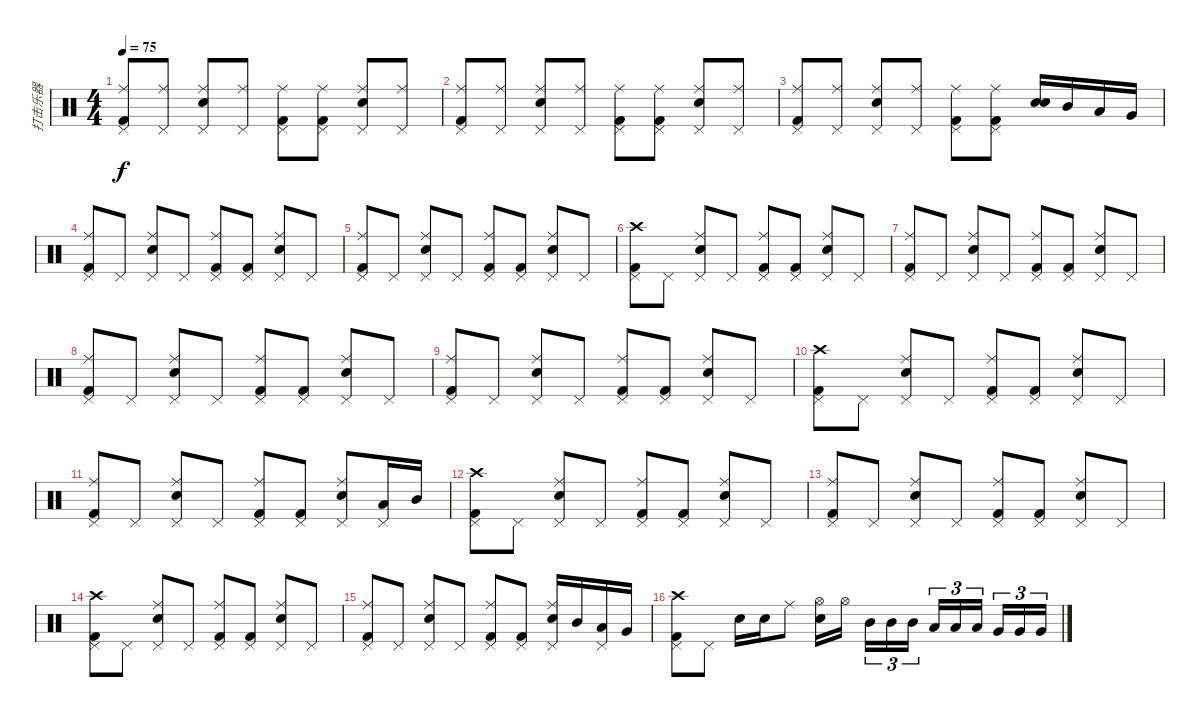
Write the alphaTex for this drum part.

\track ("打击乐器" "打击乐器") {instrument percussion}
\staff {score}
\articulation defaults
\ts (4 4)
\tempo 75
\clef neutral
\ks c
("Ride (middle)" "Pedal Hi-Hat (hit)" "Kick (hit) 2").8{dy f} ("Ride (middle)" "Pedal Hi-Hat (hit)").8 ("Ride (middle)" "Pedal Hi-Hat (hit)" "Electric Snare (hit)").8 ("Ride (middle)" "Pedal Hi-Hat (hit)").8 ("Ride (middle)" "Pedal Hi-Hat (hit)" "Kick (hit) 2").8 ("Ride (middle)" "Pedal Hi-Hat (hit)" "Kick (hit) 2").8 ("Ride (middle)" "Pedal Hi-Hat (hit)" "Electric Snare (hit)").8 ("Ride (middle)" "Pedal Hi-Hat (hit)").8 |
("Ride (middle)" "Pedal Hi-Hat (hit)" "Kick (hit) 2").8 ("Ride (middle)" "Pedal Hi-Hat (hit)").8 ("Ride (middle)" "Pedal Hi-Hat (hit)" "Electric Snare (hit)").8 ("Ride (middle)" "Pedal Hi-Hat (hit)").8 ("Ride (middle)" "Pedal Hi-Hat (hit)" "Kick (hit) 2").8 ("Ride (middle)" "Pedal Hi-Hat (hit)" "Kick (hit) 2").8 ("Ride (middle)" "Pedal Hi-Hat (hit)" "Electric Snare (hit)").8 ("Ride (middle)" "Pedal Hi-Hat (hit)").8 |
("Ride (middle)" "Pedal Hi-Hat (hit)" "Kick (hit) 2").8 ("Ride (middle)" "Pedal Hi-Hat (hit)").8 ("Ride (middle)" "Pedal Hi-Hat (hit)" "Electric Snare (hit)").8 ("Ride (middle)" "Pedal Hi-Hat (hit)").8 ("Ride (middle)" "Pedal Hi-Hat (hit)" "Kick (hit) 2").8 ("Ride (middle)" "Pedal Hi-Hat (hit)" "Kick (hit) 2").8 ("Electric Snare (hit)" "Electric Snare (hit)").16 "Mid Tom (hit)".16 "Low Tom (hit)".16 "Very Low Tom (hit)".16 |
("Ride (middle)" "Pedal Hi-Hat (hit)" "Kick (hit) 2").8 "Pedal Hi-Hat (hit)".8 ("Ride (middle)" "Pedal Hi-Hat (hit)" "Electric Snare (hit)").8 "Pedal Hi-Hat (hit)".8 ("Ride (middle)" "Pedal Hi-Hat (hit)" "Kick (hit) 2").8 ("Pedal Hi-Hat (hit)" "Kick (hit) 2").8 ("Ride (middle)" "Pedal Hi-Hat (hit)" "Electric Snare (hit)").8 "Pedal Hi-Hat (hit)".8 |
("Ride (middle)" "Pedal Hi-Hat (hit)" "Kick (hit) 2").8 "Pedal Hi-Hat (hit)".8 ("Ride (middle)" "Pedal Hi-Hat (hit)" "Electric Snare (hit)").8 "Pedal Hi-Hat (hit)".8 ("Ride (middle)" "Pedal Hi-Hat (hit)" "Kick (hit) 2").8 ("Pedal Hi-Hat (hit)" "Kick (hit) 2").8 ("Ride (middle)" "Pedal Hi-Hat (hit)" "Electric Snare (hit)").8 "Pedal Hi-Hat (hit)".8 |
("Crash high (hit)" "Pedal Hi-Hat (hit)" "Kick (hit) 2").8 "Pedal Hi-Hat (hit)".8 ("Ride (middle)" "Pedal Hi-Hat (hit)" "Electric Snare (hit)").8 "Pedal Hi-Hat (hit)".8 ("Ride (middle)" "Pedal Hi-Hat (hit)" "Kick (hit) 2").8 ("Pedal Hi-Hat (hit)" "Kick (hit) 2").8 ("Ride (middle)" "Pedal Hi-Hat (hit)" "Electric Snare (hit)").8 "Pedal Hi-Hat (hit)".8 |
("Ride (middle)" "Pedal Hi-Hat (hit)" "Kick (hit) 2").8 "Pedal Hi-Hat (hit)".8 ("Ride (middle)" "Pedal Hi-Hat (hit)" "Electric Snare (hit)").8 "Pedal Hi-Hat (hit)".8 ("Ride (middle)" "Pedal Hi-Hat (hit)" "Kick (hit) 2").8 ("Pedal Hi-Hat (hit)" "Kick (hit) 2").8 ("Ride (middle)" "Pedal Hi-Hat (hit)" "Electric Snare (hit)").8 "Pedal Hi-Hat (hit)".8 |
("Ride (middle)" "Pedal Hi-Hat (hit)" "Kick (hit) 2").8 "Pedal Hi-Hat (hit)".8 ("Ride (middle)" "Pedal Hi-Hat (hit)" "Electric Snare (hit)").8 "Pedal Hi-Hat (hit)".8 ("Ride (middle)" "Pedal Hi-Hat (hit)" "Kick (hit) 2").8 ("Pedal Hi-Hat (hit)" "Kick (hit) 2").8 ("Ride (middle)" "Pedal Hi-Hat (hit)" "Electric Snare (hit)").8 "Pedal Hi-Hat (hit)".8 |
("Ride (middle)" "Pedal Hi-Hat (hit)" "Kick (hit) 2").8 "Pedal Hi-Hat (hit)".8 ("Ride (middle)" "Pedal Hi-Hat (hit)" "Electric Snare (hit)").8 "Pedal Hi-Hat (hit)".8 ("Ride (middle)" "Pedal Hi-Hat (hit)" "Kick (hit) 2").8 ("Pedal Hi-Hat (hit)" "Kick (hit) 2").8 ("Ride (middle)" "Pedal Hi-Hat (hit)" "Electric Snare (hit)").8 "Pedal Hi-Hat (hit)".8 |
("Crash high (hit)" "Pedal Hi-Hat (hit)" "Kick (hit) 2").8 "Pedal Hi-Hat (hit)".8 ("Ride (middle)" "Pedal Hi-Hat (hit)" "Electric Snare (hit)").8 "Pedal Hi-Hat (hit)".8 ("Ride (middle)" "Pedal Hi-Hat (hit)" "Kick (hit) 2").8 ("Pedal Hi-Hat (hit)" "Kick (hit) 2").8 ("Ride (middle)" "Pedal Hi-Hat (hit)" "Electric Snare (hit)").8 "Pedal Hi-Hat (hit)".8 |
("Ride (middle)" "Pedal Hi-Hat (hit)" "Kick (hit) 2").8 "Pedal Hi-Hat (hit)".8 ("Ride (middle)" "Pedal Hi-Hat (hit)" "Electric Snare (hit)").8 "Pedal Hi-Hat (hit)".8 ("Ride (middle)" "Pedal Hi-Hat (hit)" "Kick (hit) 2").8 ("Pedal Hi-Hat (hit)" "Kick (hit) 2").8 ("Ride (middle)" "Pedal Hi-Hat (hit)" "Electric Snare (hit)").8 ("Pedal Hi-Hat (hit)" "Low Tom (hit)").16 "Mid Tom (hit)".16 |
("Crash high (hit)" "Pedal Hi-Hat (hit)" "Kick (hit) 2").8 "Pedal Hi-Hat (hit)".8 ("Ride (middle)" "Pedal Hi-Hat (hit)" "Electric Snare (hit)").8 "Pedal Hi-Hat (hit)".8 ("Ride (middle)" "Pedal Hi-Hat (hit)" "Kick (hit) 2").8 ("Pedal Hi-Hat (hit)" "Kick (hit) 2").8 ("Ride (middle)" "Pedal Hi-Hat (hit)" "Electric Snare (hit)").8 "Pedal Hi-Hat (hit)".8 |
("Ride (middle)" "Pedal Hi-Hat (hit)" "Kick (hit) 2").8 "Pedal Hi-Hat (hit)".8 ("Ride (middle)" "Pedal Hi-Hat (hit)" "Electric Snare (hit)").8 "Pedal Hi-Hat (hit)".8 ("Ride (middle)" "Pedal Hi-Hat (hit)" "Kick (hit) 2").8 ("Pedal Hi-Hat (hit)" "Kick (hit) 2").8 ("Ride (middle)" "Pedal Hi-Hat (hit)" "Electric Snare (hit)").8 "Pedal Hi-Hat (hit)".8 |
("Crash high (hit)" "Pedal Hi-Hat (hit)" "Kick (hit) 2").8 "Pedal Hi-Hat (hit)".8 ("Ride (middle)" "Pedal Hi-Hat (hit)" "Electric Snare (hit)").8 "Pedal Hi-Hat (hit)".8 ("Ride (middle)" "Pedal Hi-Hat (hit)" "Kick (hit) 2").8 ("Pedal Hi-Hat (hit)" "Kick (hit) 2").8 ("Ride (middle)" "Pedal Hi-Hat (hit)" "Electric Snare (hit)").8 "Pedal Hi-Hat (hit)".8 |
("Ride (middle)" "Pedal Hi-Hat (hit)" "Kick (hit) 2").8 "Pedal Hi-Hat (hit)".8 ("Ride (middle)" "Pedal Hi-Hat (hit)" "Electric Snare (hit)").8 "Pedal Hi-Hat (hit)".8 ("Ride (middle)" "Pedal Hi-Hat (hit)" "Kick (hit) 2").8 ("Pedal Hi-Hat (hit)" "Kick (hit) 2").8 ("Ride (middle)" "Pedal Hi-Hat (hit)" "Electric Snare (hit)").16 "Mid Tom (hit)".16 ("Pedal Hi-Hat (hit)" "Low Tom (hit)").16 "Very Low Tom (hit)".16 |
("Crash high (hit)" "Pedal Hi-Hat (hit)" "Kick (hit) 2").8 "Pedal Hi-Hat (hit)".8 "Electric Snare (hit)".16 "Electric Snare (hit)".16 "Ride (middle)".8 ("Electric Snare (hit)" "Hi-Hat (open)").16 "Hi-Hat (open)".16 "Mid Tom (hit)".16{tu (3 2)} "Mid Tom (hit)".16{tu (3 2)} "Mid Tom (hit)".16{tu (3 2)} "Low Tom (hit)".16{tu (3 2)} "Low Tom (hit)".16{tu (3 2)} "Low Tom (hit)".16{tu (3 2)} "Very Low Tom (hit)".16{tu (3 2)} "Very Low Tom (hit)".16{tu (3 2)} "Very Low Tom (hit)".16{tu (3 2)}
